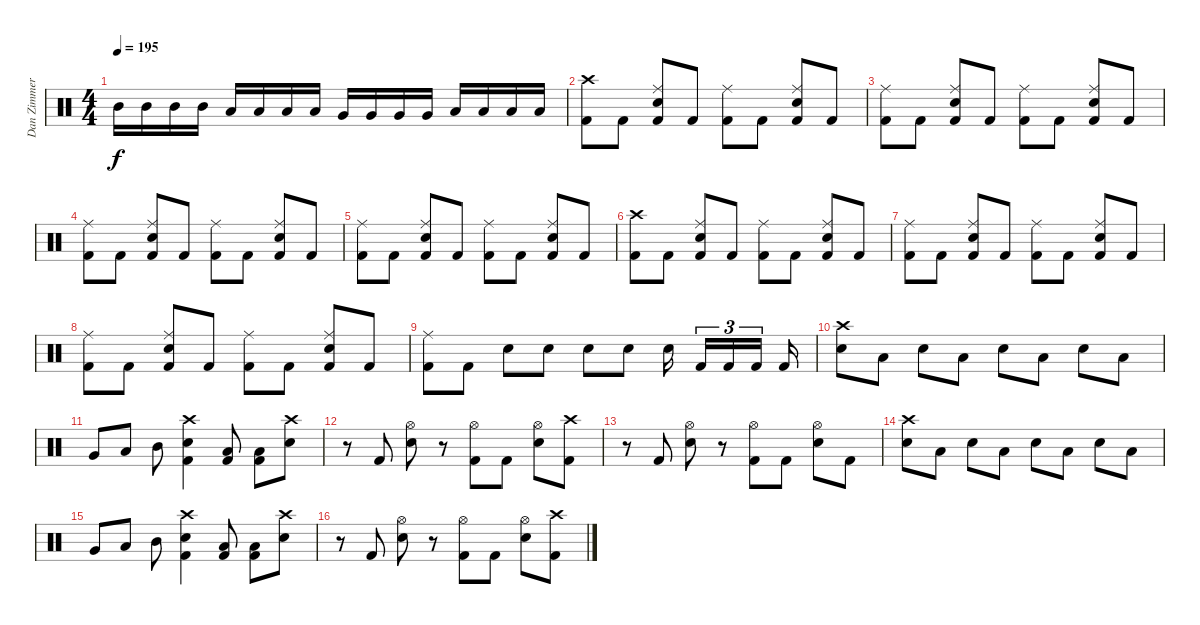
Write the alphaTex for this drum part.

\track ("Dan Zimmermann" "Dan Zimmer") {instrument percussion}
\staff {score}
\articulation defaults
\ts (4 4)
\tempo 195
\clef neutral
\ks c "Mid Tom (hit)".16{dy f} "Mid Tom (hit)".16 "Mid Tom (hit)".16 "Mid Tom (hit)".16 "Low Tom (hit)".16 "Low Tom (hit)".16 "Low Tom (hit)".16 "Low Tom (hit)".16 "Very Low Tom (hit)".16 "Very Low Tom (hit)".16 "Very Low Tom (hit)".16 "Very Low Tom (hit)".16 "Low Floor Tom (hit)".16 "Low Floor Tom (hit)".16 "Low Floor Tom (hit)".16 "Low Floor Tom (hit)".16
|
("Crash high (hit)" "Kick (hit) 2").8 "Kick (hit) 2".8 ("Ride (middle)" "Electric Snare (hit)" "Kick (hit) 2").8 "Kick (hit) 2".8 ("Ride (middle)" "Kick (hit) 2").8 "Kick (hit) 2".8 ("Ride (middle)" "Electric Snare (hit)" "Kick (hit) 2").8 "Kick (hit) 2".8 |
("Ride (middle)" "Kick (hit) 2").8 "Kick (hit) 2".8 ("Ride (middle)" "Electric Snare (hit)" "Kick (hit) 2").8 "Kick (hit) 2".8 ("Ride (middle)" "Kick (hit) 2").8 "Kick (hit) 2".8 ("Ride (middle)" "Electric Snare (hit)" "Kick (hit) 2").8 "Kick (hit) 2".8 |
("Ride (middle)" "Kick (hit) 2").8 "Kick (hit) 2".8 ("Ride (middle)" "Electric Snare (hit)" "Kick (hit) 2").8 "Kick (hit) 2".8 ("Ride (middle)" "Kick (hit) 2").8 "Kick (hit) 2".8 ("Ride (middle)" "Electric Snare (hit)" "Kick (hit) 2").8 "Kick (hit) 2".8 |
("Ride (middle)" "Kick (hit) 2").8 "Kick (hit) 2".8 ("Ride (middle)" "Electric Snare (hit)" "Kick (hit) 2").8 "Kick (hit) 2".8 ("Ride (middle)" "Kick (hit) 2").8 "Kick (hit) 2".8 ("Ride (middle)" "Electric Snare (hit)" "Kick (hit) 2").8 "Kick (hit) 2".8 |
("Crash high (hit)" "Kick (hit) 2").8 "Kick (hit) 2".8 ("Ride (middle)" "Electric Snare (hit)" "Kick (hit) 2").8 "Kick (hit) 2".8 ("Ride (middle)" "Kick (hit) 2").8 "Kick (hit) 2".8 ("Ride (middle)" "Electric Snare (hit)" "Kick (hit) 2").8 "Kick (hit) 2".8 |
("Ride (middle)" "Kick (hit) 2").8 "Kick (hit) 2".8 ("Ride (middle)" "Electric Snare (hit)" "Kick (hit) 2").8 "Kick (hit) 2".8 ("Ride (middle)" "Kick (hit) 2").8 "Kick (hit) 2".8 ("Ride (middle)" "Electric Snare (hit)" "Kick (hit) 2").8 "Kick (hit) 2".8 |
("Ride (middle)" "Kick (hit) 2").8 "Kick (hit) 2".8 ("Ride (middle)" "Electric Snare (hit)" "Kick (hit) 2").8 "Kick (hit) 2".8 ("Ride (middle)" "Kick (hit) 2").8 "Kick (hit) 2".8 ("Ride (middle)" "Electric Snare (hit)" "Kick (hit) 2").8 "Kick (hit) 2".8 |
("Ride (middle)" "Kick (hit) 2").8 "Kick (hit) 2".8 "Electric Snare (hit)".8 "Electric Snare (hit)".8 "Electric Snare (hit)".8 "Electric Snare (hit)".8 "Electric Snare (hit)".16 "Kick (hit) 2".16{tu (3 2)} "Kick (hit) 2".16{tu (3 2)} "Kick (hit) 2".16{tu (3 2)} "Kick (hit) 2".16 |
("Crash high (hit)" "Electric Snare (hit)").8 "Low Tom (hit)".8 "Electric Snare (hit)".8 "Low Tom (hit)".8 "Electric Snare (hit)".8 "Low Tom (hit)".8 "Electric Snare (hit)".8 "Low Tom (hit)".8 |
"Very Low Tom (hit)".8 "Low Tom (hit)".8 "Mid Tom (hit)".8 ("Crash high (hit)" "Electric Snare (hit)" "Kick (hit) 2").4 ("Low Floor Tom (hit)" "Kick (hit) 2").8 ("Low Floor Tom (hit)" "Kick (hit) 2").8 ("Crash high (hit)" "Electric Snare (hit)").8 |
r.8 "Kick (hit) 2".8 ("Hi-Hat (open)" "Electric Snare (hit)").8 r.8 ("Hi-Hat (open)" "Kick (hit) 2").8 "Kick (hit) 2".8 ("Hi-Hat (open)" "Electric Snare (hit)").8 ("Crash high (hit)" "Kick (hit) 2").8 |
r.8 "Kick (hit) 2".8 ("Hi-Hat (open)" "Electric Snare (hit)").8 r.8 ("Hi-Hat (open)" "Kick (hit) 2").8 "Kick (hit) 2".8 ("Hi-Hat (open)" "Electric Snare (hit)").8 "Kick (hit) 2".8 |
("Crash high (hit)" "Electric Snare (hit)").8 "Low Tom (hit)".8 "Electric Snare (hit)".8 "Low Tom (hit)".8 "Electric Snare (hit)".8 "Low Tom (hit)".8 "Electric Snare (hit)".8 "Low Tom (hit)".8 |
"Very Low Tom (hit)".8 "Low Tom (hit)".8 "Mid Tom (hit)".8 ("Crash high (hit)" "Electric Snare (hit)" "Kick (hit) 2").4 ("Low Floor Tom (hit)" "Kick (hit) 2").8 ("Low Floor Tom (hit)" "Kick (hit) 2").8 ("Crash high (hit)" "Electric Snare (hit)").8 |
r.8 "Kick (hit) 2".8 ("Hi-Hat (open)" "Electric Snare (hit)").8 r.8 ("Hi-Hat (open)" "Kick (hit) 2").8 "Kick (hit) 2".8 ("Hi-Hat (open)" "Electric Snare (hit)").8 ("Crash high (hit)" "Kick (hit) 2").8
